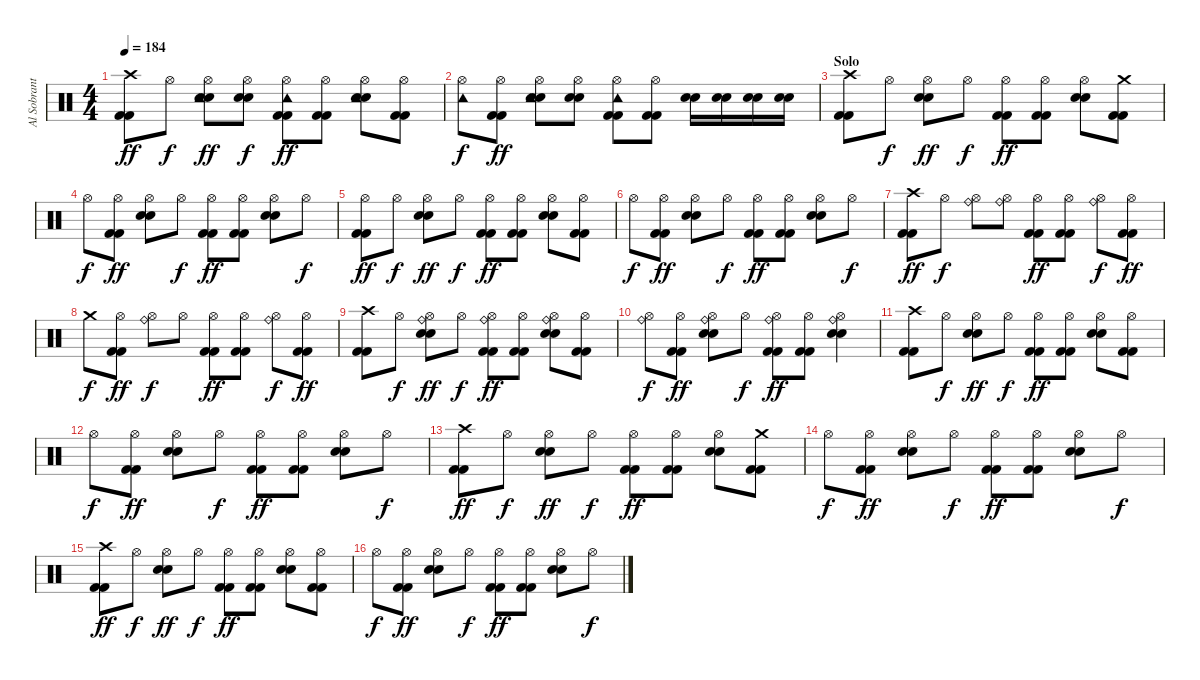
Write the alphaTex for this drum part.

\track ("Al Sobrante (Drums)" "Al Sobrant") {instrument percussion}
\staff {score}
\articulation defaults
\ts (4 4)
\tempo 184
\clef neutral
\ks c
("Kick (hit) 2" "Kick (hit) 2" "Crash high (hit)").8{dy ff} "Hi-Hat (open)".8{dy f} ("Electric Snare (hit)" "Electric Snare (hit)" "Tambourine (hit)" "Hi-Hat (open)").8{dy ff} ("Electric Snare (hit)" "Electric Snare (hit)" "Hi-Hat (open)").8{dy f} ("Kick (hit) 2" "Kick (hit) 2" "Tambourine (hit)" "Hi-Hat (open)").8{dy ff} ("Kick (hit) 2" "Kick (hit) 2" "Hi-Hat (open)").8 ("Electric Snare (hit)" "Electric Snare (hit)" "Tambourine (hit)" "Hi-Hat (open)").8 ("Kick (hit) 2" "Kick (hit) 2" "Hi-Hat (open)").8 |
("Tambourine (hit)" "Hi-Hat (open)").8{dy f} ("Kick (hit) 2" "Kick (hit) 2" "Hi-Hat (open)").8{dy ff} ("Electric Snare (hit)" "Electric Snare (hit)" "Tambourine (hit)" "Hi-Hat (open)").8 ("Electric Snare (hit)" "Electric Snare (hit)" "Hi-Hat (open)").8 ("Kick (hit) 2" "Kick (hit) 2" "Tambourine (hit)" "Hi-Hat (open)").8 ("Kick (hit) 2" "Kick (hit) 2" "Hi-Hat (open)").8 ("Electric Snare (hit)" "Electric Snare (hit)").16 ("Electric Snare (hit)" "Electric Snare (hit)").16 ("Electric Snare (hit)" "Electric Snare (hit)").16 ("Electric Snare (hit)" "Electric Snare (hit)").16 |
\section ("" "Solo")
("Kick (hit) 2" "Kick (hit) 2" "Crash high (hit)").8 "Hi-Hat (open)".8{dy f} ("Electric Snare (hit)" "Electric Snare (hit)" "Hi-Hat (open)").8{dy ff} "Hi-Hat (open)".8{dy f} ("Kick (hit) 2" "Kick (hit) 2" "Hi-Hat (open)").8{dy ff} ("Kick (hit) 2" "Kick (hit) 2" "Hi-Hat (open)").8 ("Electric Snare (hit)" "Electric Snare (hit)" "Hi-Hat (open)").8 ("Kick (hit) 2" "Kick (hit) 2" "Crash medium (hit)").8 |
"Hi-Hat (open)".8{dy f} ("Kick (hit) 2" "Kick (hit) 2" "Hi-Hat (open)").8{dy ff} ("Electric Snare (hit)" "Electric Snare (hit)" "Hi-Hat (open)").8 "Hi-Hat (open)".8{dy f} ("Kick (hit) 2" "Kick (hit) 2" "Hi-Hat (open)").8{dy ff} ("Kick (hit) 2" "Kick (hit) 2" "Hi-Hat (open)").8 ("Electric Snare (hit)" "Electric Snare (hit)" "Hi-Hat (open)").8 "Hi-Hat (open)".8{dy f} |
("Kick (hit) 2" "Kick (hit) 2" "Hi-Hat (open)").8{dy ff} "Hi-Hat (open)".8{dy f} ("Electric Snare (hit)" "Electric Snare (hit)" "Hi-Hat (open)").8{dy ff} "Hi-Hat (open)".8{dy f} ("Kick (hit) 2" "Kick (hit) 2" "Hi-Hat (open)").8{dy ff} ("Kick (hit) 2" "Kick (hit) 2" "Hi-Hat (open)").8 ("Electric Snare (hit)" "Electric Snare (hit)" "Hi-Hat (open)").8 ("Kick (hit) 2" "Kick (hit) 2" "Hi-Hat (open)").8 |
"Hi-Hat (open)".8{dy f} ("Kick (hit) 2" "Kick (hit) 2" "Hi-Hat (open)").8{dy ff} ("Electric Snare (hit)" "Electric Snare (hit)" "Hi-Hat (open)").8 "Hi-Hat (open)".8{dy f} ("Kick (hit) 2" "Kick (hit) 2" "Hi-Hat (open)").8{dy ff} ("Kick (hit) 2" "Kick (hit) 2" "Hi-Hat (open)").8 ("Electric Snare (hit)" "Electric Snare (hit)" "Hi-Hat (open)").8 "Hi-Hat (open)".8{dy f} |
("Kick (hit) 2" "Kick (hit) 2" "Crash high (hit)").8{dy ff} "Hi-Hat (open)".8{dy f} ("Ride (bell)" "Hi-Hat (open)").8 ("Ride (bell)" "Hi-Hat (open)").8 ("Kick (hit) 2" "Kick (hit) 2" "Hi-Hat (open)").8{dy ff} ("Kick (hit) 2" "Kick (hit) 2" "Hi-Hat (open)").8 ("Ride (bell)" "Hi-Hat (open)").8{dy f} ("Kick (hit) 2" "Kick (hit) 2" "Hi-Hat (open)").8{dy ff} |
"Crash medium (hit)".8{dy f} ("Kick (hit) 2" "Kick (hit) 2" "Hi-Hat (open)").8{dy ff} ("Ride (bell)" "Hi-Hat (open)").8{dy f} "Hi-Hat (open)".8 ("Kick (hit) 2" "Kick (hit) 2" "Hi-Hat (open)").8{dy ff} ("Kick (hit) 2" "Kick (hit) 2" "Hi-Hat (open)").8 ("Ride (bell)" "Hi-Hat (open)").8{dy f} ("Kick (hit) 2" "Kick (hit) 2" "Hi-Hat (open)").8{dy ff} |
("Kick (hit) 2" "Kick (hit) 2" "Crash high (hit)").8 "Hi-Hat (open)".8{dy f} ("Electric Snare (hit)" "Electric Snare (hit)" "Ride (bell)" "Hi-Hat (open)").8{dy ff} "Hi-Hat (open)".8{dy f} ("Kick (hit) 2" "Kick (hit) 2" "Ride (bell)" "Hi-Hat (open)").8{dy ff} ("Kick (hit) 2" "Kick (hit) 2" "Hi-Hat (open)").8 ("Electric Snare (hit)" "Electric Snare (hit)" "Ride (bell)" "Hi-Hat (open)").8 ("Kick (hit) 2" "Kick (hit) 2" "Hi-Hat (open)").8 |
("Ride (bell)" "Hi-Hat (open)").8{dy f} ("Kick (hit) 2" "Kick (hit) 2" "Hi-Hat (open)").8{dy ff} ("Electric Snare (hit)" "Electric Snare (hit)" "Ride (bell)" "Hi-Hat (open)").8 "Hi-Hat (open)".8{dy f} ("Kick (hit) 2" "Kick (hit) 2" "Ride (bell)" "Hi-Hat (open)").8{dy ff} ("Kick (hit) 2" "Kick (hit) 2" "Hi-Hat (open)").8 ("Electric Snare (hit)" "Electric Snare (hit)" "Ride (bell)" "Hi-Hat (open)").4 |
("Kick (hit) 2" "Kick (hit) 2" "Crash high (hit)").8 "Hi-Hat (open)".8{dy f} ("Electric Snare (hit)" "Electric Snare (hit)" "Hi-Hat (open)").8{dy ff} "Hi-Hat (open)".8{dy f} ("Kick (hit) 2" "Kick (hit) 2" "Hi-Hat (open)").8{dy ff} ("Kick (hit) 2" "Kick (hit) 2" "Hi-Hat (open)").8 ("Electric Snare (hit)" "Electric Snare (hit)" "Hi-Hat (open)").8 ("Kick (hit) 2" "Kick (hit) 2" "Hi-Hat (open)").8 |
"Hi-Hat (open)".8{dy f} ("Kick (hit) 2" "Kick (hit) 2" "Hi-Hat (open)").8{dy ff} ("Electric Snare (hit)" "Electric Snare (hit)" "Hi-Hat (open)").8 "Hi-Hat (open)".8{dy f} ("Kick (hit) 2" "Kick (hit) 2" "Hi-Hat (open)").8{dy ff} ("Kick (hit) 2" "Kick (hit) 2" "Hi-Hat (open)").8 ("Electric Snare (hit)" "Electric Snare (hit)" "Hi-Hat (open)").8 "Hi-Hat (open)".8{dy f} |
("Kick (hit) 2" "Kick (hit) 2" "Crash high (hit)").8{dy ff} "Hi-Hat (open)".8{dy f} ("Electric Snare (hit)" "Electric Snare (hit)" "Hi-Hat (open)").8{dy ff} "Hi-Hat (open)".8{dy f} ("Kick (hit) 2" "Kick (hit) 2" "Hi-Hat (open)").8{dy ff} ("Kick (hit) 2" "Kick (hit) 2" "Hi-Hat (open)").8 ("Electric Snare (hit)" "Electric Snare (hit)" "Hi-Hat (open)").8 ("Kick (hit) 2" "Kick (hit) 2" "Crash medium (hit)").8 |
"Hi-Hat (open)".8{dy f} ("Kick (hit) 2" "Kick (hit) 2" "Hi-Hat (open)").8{dy ff} ("Electric Snare (hit)" "Electric Snare (hit)" "Hi-Hat (open)").8 "Hi-Hat (open)".8{dy f} ("Kick (hit) 2" "Kick (hit) 2" "Hi-Hat (open)").8{dy ff} ("Kick (hit) 2" "Kick (hit) 2" "Hi-Hat (open)").8 ("Electric Snare (hit)" "Electric Snare (hit)" "Hi-Hat (open)").8 "Hi-Hat (open)".8{dy f} |
("Kick (hit) 2" "Kick (hit) 2" "Crash high (hit)").8{dy ff} "Hi-Hat (open)".8{dy f} ("Electric Snare (hit)" "Electric Snare (hit)" "Hi-Hat (open)").8{dy ff} "Hi-Hat (open)".8{dy f} ("Kick (hit) 2" "Kick (hit) 2" "Hi-Hat (open)").8{dy ff} ("Kick (hit) 2" "Kick (hit) 2" "Hi-Hat (open)").8 ("Electric Snare (hit)" "Electric Snare (hit)" "Hi-Hat (open)").8 ("Kick (hit) 2" "Kick (hit) 2" "Hi-Hat (open)").8 |
"Hi-Hat (open)".8{dy f} ("Kick (hit) 2" "Kick (hit) 2" "Hi-Hat (open)").8{dy ff} ("Electric Snare (hit)" "Electric Snare (hit)" "Hi-Hat (open)").8 "Hi-Hat (open)".8{dy f} ("Kick (hit) 2" "Kick (hit) 2" "Hi-Hat (open)").8{dy ff} ("Kick (hit) 2" "Kick (hit) 2" "Hi-Hat (open)").8 ("Electric Snare (hit)" "Electric Snare (hit)" "Hi-Hat (open)").8 "Hi-Hat (open)".8{dy f}
